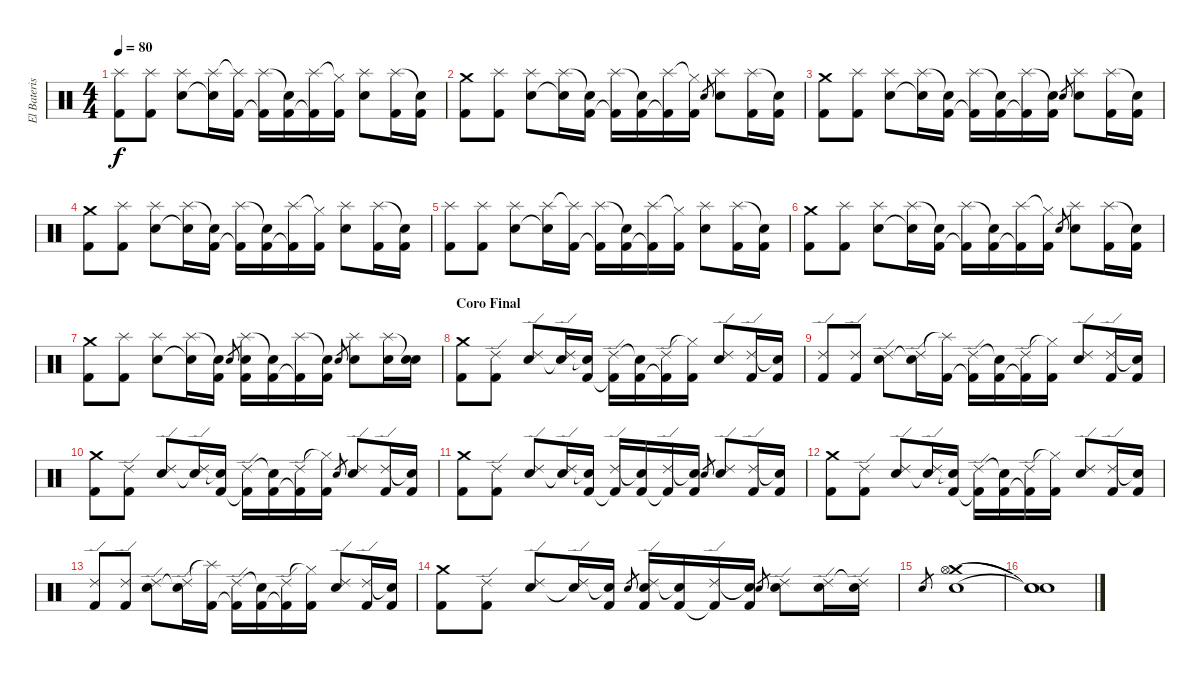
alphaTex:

\track ("El Baterista" "El Bateris") {instrument percussion}
\staff {score}
\articulation defaults
\ts (4 4)
\tempo 80
\clef neutral
\ks c
("Splash (hit)" "Kick (hit) 2").8{dy f} ("Splash (hit)" "Kick (hit) 2").8 ("Splash (hit)" "Electric Snare (hit)").8 ("Splash (hit)" "Snare (hit)"{t}).16 ("Splash (hit)"{t} "Kick (hit) 2").16 ("Splash (hit)" "Kick (hit) 2"{t}).16 ("Snare (hit)"{t} "Kick (hit) 2").16 ("Splash (hit)" "Kick (hit) 2"{t}).16 ("Hi-Hat (closed)"{t} "Kick (hit) 2").16 ("Splash (hit)" "Electric Snare (hit)").8 ("Splash (hit)" "Kick (hit) 2").16 ("Snare (hit)"{t} "Kick (hit) 2").16 |
("Crash medium (hit)" "Kick (hit) 2").8 ("Splash (hit)" "Kick (hit) 2").8 ("Splash (hit)" "Electric Snare (hit)").8 ("Splash (hit)" "Snare (hit)"{t}).16 ("Snare (hit)"{t} "Kick (hit) 2").16 ("Splash (hit)" "Kick (hit) 2"{t}).16 ("Snare (hit)"{t} "Kick (hit) 2").16 ("Splash (hit)" "Kick (hit) 2"{t}).16 ("Hi-Hat (closed)"{t} "Kick (hit) 2").16 "Electric Snare (hit)".8{gr} ("Splash (hit)" "Electric Snare (hit)").8 ("Splash (hit)" "Kick (hit) 2").16 ("Snare (hit)"{t} "Kick (hit) 2").16 |
("Crash medium (hit)" "Kick (hit) 2").8 ("Splash (hit)" "Kick (hit) 2").8 ("Splash (hit)" "Electric Snare (hit)").8 ("Splash (hit)" "Snare (hit)"{t}).16 ("Snare (hit)"{t} "Kick (hit) 2").16 ("Splash (hit)" "Kick (hit) 2"{t}).16 ("Snare (hit)"{t} "Kick (hit) 2").16 ("Splash (hit)" "Kick (hit) 2"{t}).16 ("Snare (hit)"{t} "Kick (hit) 2").16 "Electric Snare (hit)".8{gr} ("Splash (hit)" "Electric Snare (hit)").8 ("Splash (hit)" "Kick (hit) 2").16 ("Snare (hit)"{t} "Kick (hit) 2").16 |
("Crash medium (hit)" "Kick (hit) 2").8 ("Splash (hit)" "Kick (hit) 2").8 ("Splash (hit)" "Electric Snare (hit)").8 ("Splash (hit)" "Snare (hit)"{t}).16 ("Snare (hit)"{t} "Kick (hit) 2").16 ("Splash (hit)" "Kick (hit) 2"{t}).16 ("Snare (hit)"{t} "Kick (hit) 2").16 ("Splash (hit)" "Kick (hit) 2"{t}).16 ("Hi-Hat (closed)"{t} "Kick (hit) 2").16 ("Splash (hit)" "Electric Snare (hit)").8 ("Splash (hit)" "Kick (hit) 2").16 ("Snare (hit)"{t} "Kick (hit) 2").16 |
("Splash (hit)" "Kick (hit) 2").8 ("Splash (hit)" "Kick (hit) 2").8 ("Splash (hit)" "Electric Snare (hit)").8 ("Splash (hit)" "Snare (hit)"{t}).16 ("Splash (hit)"{t} "Kick (hit) 2").16 ("Splash (hit)" "Kick (hit) 2"{t}).16 ("Snare (hit)"{t} "Kick (hit) 2").16 ("Splash (hit)" "Kick (hit) 2"{t}).16 ("Hi-Hat (closed)"{t} "Kick (hit) 2").16 ("Splash (hit)" "Electric Snare (hit)").8 ("Splash (hit)" "Kick (hit) 2").16 ("Snare (hit)"{t} "Kick (hit) 2").16 |
("Crash medium (hit)" "Kick (hit) 2").8 ("Splash (hit)" "Kick (hit) 2").8 ("Splash (hit)" "Electric Snare (hit)").8 ("Splash (hit)" "Snare (hit)"{t}).16 ("Snare (hit)"{t} "Kick (hit) 2").16 ("Splash (hit)" "Kick (hit) 2"{t}).16 ("Snare (hit)"{t} "Kick (hit) 2").16 ("Splash (hit)" "Kick (hit) 2"{t}).16 ("Hi-Hat (closed)"{t} "Kick (hit) 2").16 "Electric Snare (hit)".8{gr} ("Splash (hit)" "Electric Snare (hit)").8 ("Splash (hit)" "Kick (hit) 2").16 ("Snare (hit)"{t} "Kick (hit) 2").16 |
("Crash medium (hit)" "Kick (hit) 2").8 ("Splash (hit)" "Kick (hit) 2").8 ("Splash (hit)" "Electric Snare (hit)").8 ("Splash (hit)" "Snare (hit)"{t}).16 ("Snare (hit)"{t} "Kick (hit) 2").16 "Electric Snare (hit)".8{gr} ("Splash (hit)" "Electric Snare (hit)" "Kick (hit) 2").16 ("Snare (hit)"{t} "Kick (hit) 2").16 ("Splash (hit)" "Kick (hit) 2"{t}).16 ("Snare (hit)"{t} "Kick (hit) 2").16 "Electric Snare (hit)".8{gr} ("Splash (hit)" "Electric Snare (hit)").8 ("Splash (hit)" "Electric Snare (hit)").16 ("Snare (hit)"{t} "Electric Snare (hit)").16 |
\section ("" "Coro Final")
("Crash medium (hit)" "Kick (hit) 2").8 ("Ride (edge) 2" "Kick (hit) 2").8 ("Ride (edge) 2" "Electric Snare (hit)").8 ("Ride (edge) 2" "Snare (hit)"{t}).16 ("Snare (hit)"{t} "Kick (hit) 2").16 ("Ride (edge) 2" "Kick (hit) 2"{t}).16 ("Snare (hit)"{t} "Kick (hit) 2").16 ("Ride (edge) 2" "Kick (hit) 2"{t}).16 ("Hi-Hat (closed)"{t} "Kick (hit) 2").16 ("Ride (edge) 2" "Electric Snare (hit)").8 ("Ride (edge) 2" "Kick (hit) 2").16 ("Snare (hit)"{t} "Kick (hit) 2").16 |
("Ride (edge) 2" "Kick (hit) 2").8 ("Ride (edge) 2" "Kick (hit) 2").8 ("Ride (edge) 2" "Electric Snare (hit)").8 ("Ride (edge) 2" "Snare (hit)"{t}).16 ("Splash (hit)"{t} "Kick (hit) 2").16 ("Ride (edge) 2" "Kick (hit) 2"{t}).16 ("Snare (hit)"{t} "Kick (hit) 2").16 ("Ride (edge) 2" "Kick (hit) 2"{t}).16 ("Hi-Hat (closed)"{t} "Kick (hit) 2").16 ("Ride (edge) 2" "Electric Snare (hit)").8 ("Ride (edge) 2" "Kick (hit) 2").16 ("Snare (hit)"{t} "Kick (hit) 2").16 |
("Crash medium (hit)" "Kick (hit) 2").8 ("Ride (edge) 2" "Kick (hit) 2").8 ("Ride (edge) 2" "Electric Snare (hit)").8 ("Ride (edge) 2" "Snare (hit)"{t}).16 ("Snare (hit)"{t} "Kick (hit) 2").16 ("Ride (edge) 2" "Kick (hit) 2"{t}).16 ("Snare (hit)"{t} "Kick (hit) 2").16 ("Ride (edge) 2" "Kick (hit) 2"{t}).16 ("Hi-Hat (closed)"{t} "Kick (hit) 2").16 "Electric Snare (hit)".8{gr} ("Ride (edge) 2" "Electric Snare (hit)").8 ("Ride (edge) 2" "Kick (hit) 2").16 ("Snare (hit)"{t} "Kick (hit) 2").16 |
("Crash medium (hit)" "Kick (hit) 2").8 ("Ride (edge) 2" "Kick (hit) 2").8 ("Ride (edge) 2" "Electric Snare (hit)").8 ("Ride (edge) 2" "Snare (hit)"{t}).16 ("Snare (hit)"{t} "Kick (hit) 2").16 ("Ride (edge) 2" "Kick (hit) 2"{t}).16 ("Snare (hit)"{t} "Kick (hit) 2").16 ("Ride (edge) 2" "Kick (hit) 2"{t}).16 ("Snare (hit)"{t} "Kick (hit) 2").16 "Electric Snare (hit)".8{gr} ("Ride (edge) 2" "Electric Snare (hit)").8 ("Ride (edge) 2" "Kick (hit) 2").16 ("Snare (hit)"{t} "Kick (hit) 2").16 |
("Crash medium (hit)" "Kick (hit) 2").8 ("Ride (edge) 2" "Kick (hit) 2").8 ("Ride (edge) 2" "Electric Snare (hit)").8 ("Ride (edge) 2" "Snare (hit)"{t}).16 ("Snare (hit)"{t} "Kick (hit) 2").16 ("Ride (edge) 2" "Kick (hit) 2"{t}).16 ("Snare (hit)"{t} "Kick (hit) 2").16 ("Ride (edge) 2" "Kick (hit) 2"{t}).16 ("Hi-Hat (closed)"{t} "Kick (hit) 2").16 ("Ride (edge) 2" "Electric Snare (hit)").8 ("Ride (edge) 2" "Kick (hit) 2").16 ("Snare (hit)"{t} "Kick (hit) 2").16 |
("Ride (edge) 2" "Kick (hit) 2").8 ("Ride (edge) 2" "Kick (hit) 2").8 ("Ride (edge) 2" "Electric Snare (hit)").8 ("Ride (edge) 2" "Snare (hit)"{t}).16 ("Splash (hit)"{t} "Kick (hit) 2").16 ("Ride (edge) 2" "Kick (hit) 2"{t}).16 ("Snare (hit)"{t} "Kick (hit) 2").16 ("Ride (edge) 2" "Kick (hit) 2"{t}).16 ("Hi-Hat (closed)"{t} "Kick (hit) 2").16 ("Ride (edge) 2" "Electric Snare (hit)").8 ("Ride (edge) 2" "Kick (hit) 2").16 ("Snare (hit)"{t} "Kick (hit) 2").16 |
("Crash medium (hit)" "Kick (hit) 2").8 ("Ride (edge) 2" "Kick (hit) 2").8 ("Ride (edge) 2" "Electric Snare (hit)").8 ("Ride (edge) 2" "Snare (hit)"{t}).16 ("Snare (hit)"{t} "Kick (hit) 2").16 "Electric Snare (hit)".8{gr} ("Ride (edge) 2" "Electric Snare (hit)" "Kick (hit) 2").16 ("Snare (hit)"{t} "Kick (hit) 2").16 ("Ride (edge) 2" "Kick (hit) 2"{t}).16 ("Snare (hit)"{t} "Kick (hit) 2").16 "Electric Snare (hit)".8{gr} ("Ride (edge) 2" "Electric Snare (hit)").8 ("Ride (edge) 2" "Electric Snare (hit)").16 ("Ride (edge) 2"{t} "Electric Snare (hit)").16 |
"Electric Snare (hit)".8{gr} ("Crash medium (hit)" "Hi-Hat (open)" "Electric Snare (hit)").1 |
("Snare (hit)"{t} "Snare (hit)"{t} "Snare (hit)"{t}).1
